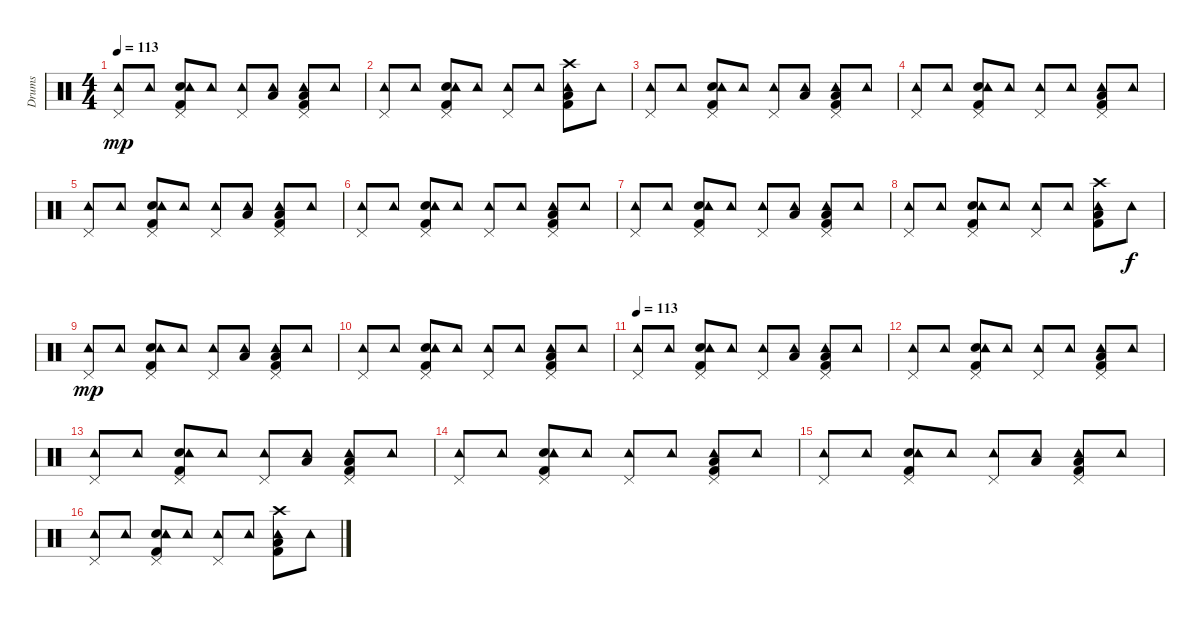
\track ("Drums" "Drums") {instrument percussion}
\staff {score}
\articulation defaults
\ts (4 4)
\tempo 113
\clef neutral
\ks c
("Pedal Hi-Hat (hit)" "Tambourine (hit)").8{dy mp} "Tambourine (hit)".8 ("Pedal Hi-Hat (hit)" "Kick (hit) 2" "Electric Snare (hit)" "Tambourine (hit)").8 "Tambourine (hit)".8 ("Pedal Hi-Hat (hit)" "Tambourine (hit)").8 ("Low Floor Tom (hit)" "Tambourine (hit)").8 ("Pedal Hi-Hat (hit)" "Kick (hit) 2" "Low Floor Tom (hit)" "Tambourine (hit)").8 "Tambourine (hit)".8 |
("Pedal Hi-Hat (hit)" "Tambourine (hit)").8 "Tambourine (hit)".8 ("Pedal Hi-Hat (hit)" "Kick (hit) 2" "Electric Snare (hit)" "Tambourine (hit)").8 "Tambourine (hit)".8 ("Pedal Hi-Hat (hit)" "Tambourine (hit)").8 "Tambourine (hit)".8 ("Crash high (hit)" "Kick (hit) 2" "Low Floor Tom (hit)" "Tambourine (hit)").8 "Tambourine (hit)".8 |
("Pedal Hi-Hat (hit)" "Tambourine (hit)").8 "Tambourine (hit)".8 ("Pedal Hi-Hat (hit)" "Kick (hit) 2" "Electric Snare (hit)" "Tambourine (hit)").8 "Tambourine (hit)".8 ("Pedal Hi-Hat (hit)" "Tambourine (hit)").8 ("Low Floor Tom (hit)" "Tambourine (hit)").8 ("Pedal Hi-Hat (hit)" "Kick (hit) 2" "Low Floor Tom (hit)" "Tambourine (hit)").8 "Tambourine (hit)".8 |
("Pedal Hi-Hat (hit)" "Tambourine (hit)").8 "Tambourine (hit)".8 ("Pedal Hi-Hat (hit)" "Kick (hit) 2" "Electric Snare (hit)" "Tambourine (hit)").8 "Tambourine (hit)".8 ("Pedal Hi-Hat (hit)" "Tambourine (hit)").8 "Tambourine (hit)".8 ("Pedal Hi-Hat (hit)" "Kick (hit) 2" "Low Floor Tom (hit)" "Tambourine (hit)").8 "Tambourine (hit)".8 |
("Pedal Hi-Hat (hit)" "Tambourine (hit)").8 "Tambourine (hit)".8 ("Pedal Hi-Hat (hit)" "Kick (hit) 2" "Electric Snare (hit)" "Tambourine (hit)").8 "Tambourine (hit)".8 ("Pedal Hi-Hat (hit)" "Tambourine (hit)").8 ("Low Floor Tom (hit)" "Tambourine (hit)").8 ("Pedal Hi-Hat (hit)" "Kick (hit) 2" "Low Floor Tom (hit)" "Tambourine (hit)").8 "Tambourine (hit)".8 |
("Pedal Hi-Hat (hit)" "Tambourine (hit)").8 "Tambourine (hit)".8 ("Pedal Hi-Hat (hit)" "Kick (hit) 2" "Electric Snare (hit)" "Tambourine (hit)").8 "Tambourine (hit)".8 ("Pedal Hi-Hat (hit)" "Tambourine (hit)").8 "Tambourine (hit)".8 ("Pedal Hi-Hat (hit)" "Kick (hit) 2" "Low Floor Tom (hit)" "Tambourine (hit)").8 "Tambourine (hit)".8 |
("Pedal Hi-Hat (hit)" "Tambourine (hit)").8 "Tambourine (hit)".8 ("Pedal Hi-Hat (hit)" "Kick (hit) 2" "Electric Snare (hit)" "Tambourine (hit)").8 "Tambourine (hit)".8 ("Pedal Hi-Hat (hit)" "Tambourine (hit)").8 ("Low Floor Tom (hit)" "Tambourine (hit)").8 ("Pedal Hi-Hat (hit)" "Kick (hit) 2" "Low Floor Tom (hit)" "Tambourine (hit)").8 "Tambourine (hit)".8 |
("Pedal Hi-Hat (hit)" "Tambourine (hit)").8 "Tambourine (hit)".8 ("Pedal Hi-Hat (hit)" "Kick (hit) 2" "Electric Snare (hit)" "Tambourine (hit)").8 "Tambourine (hit)".8 ("Pedal Hi-Hat (hit)" "Tambourine (hit)").8 "Tambourine (hit)".8 ("Crash high (hit)" "Kick (hit) 2" "Low Floor Tom (hit)" "Tambourine (hit)").8 "Tambourine (hit)".8{dy f} |
("Pedal Hi-Hat (hit)" "Tambourine (hit)").8{dy mp} "Tambourine (hit)".8 ("Pedal Hi-Hat (hit)" "Kick (hit) 2" "Electric Snare (hit)" "Tambourine (hit)").8 "Tambourine (hit)".8 ("Pedal Hi-Hat (hit)" "Tambourine (hit)").8 ("Low Floor Tom (hit)" "Tambourine (hit)").8 ("Pedal Hi-Hat (hit)" "Kick (hit) 2" "Low Floor Tom (hit)" "Tambourine (hit)").8 "Tambourine (hit)".8 |
("Pedal Hi-Hat (hit)" "Tambourine (hit)").8 "Tambourine (hit)".8 ("Pedal Hi-Hat (hit)" "Kick (hit) 2" "Electric Snare (hit)" "Tambourine (hit)").8 "Tambourine (hit)".8 ("Pedal Hi-Hat (hit)" "Tambourine (hit)").8 "Tambourine (hit)".8 ("Pedal Hi-Hat (hit)" "Kick (hit) 2" "Low Floor Tom (hit)" "Tambourine (hit)").8 "Tambourine (hit)".8 |
\tempo 113
("Pedal Hi-Hat (hit)" "Tambourine (hit)").8 "Tambourine (hit)".8 ("Pedal Hi-Hat (hit)" "Kick (hit) 2" "Electric Snare (hit)" "Tambourine (hit)").8 "Tambourine (hit)".8 ("Pedal Hi-Hat (hit)" "Tambourine (hit)").8 ("Low Floor Tom (hit)" "Tambourine (hit)").8 ("Pedal Hi-Hat (hit)" "Kick (hit) 2" "Low Floor Tom (hit)" "Tambourine (hit)").8 "Tambourine (hit)".8 |
("Pedal Hi-Hat (hit)" "Tambourine (hit)").8 "Tambourine (hit)".8 ("Pedal Hi-Hat (hit)" "Kick (hit) 2" "Electric Snare (hit)" "Tambourine (hit)").8 "Tambourine (hit)".8 ("Pedal Hi-Hat (hit)" "Tambourine (hit)").8 "Tambourine (hit)".8 ("Pedal Hi-Hat (hit)" "Kick (hit) 2" "Low Floor Tom (hit)" "Tambourine (hit)").8 "Tambourine (hit)".8 |
("Pedal Hi-Hat (hit)" "Tambourine (hit)").8 "Tambourine (hit)".8 ("Pedal Hi-Hat (hit)" "Kick (hit) 2" "Electric Snare (hit)" "Tambourine (hit)").8 "Tambourine (hit)".8 ("Pedal Hi-Hat (hit)" "Tambourine (hit)").8 ("Low Floor Tom (hit)" "Tambourine (hit)").8 ("Pedal Hi-Hat (hit)" "Kick (hit) 2" "Low Floor Tom (hit)" "Tambourine (hit)").8 "Tambourine (hit)".8 |
("Pedal Hi-Hat (hit)" "Tambourine (hit)").8 "Tambourine (hit)".8 ("Pedal Hi-Hat (hit)" "Kick (hit) 2" "Electric Snare (hit)" "Tambourine (hit)").8 "Tambourine (hit)".8 ("Pedal Hi-Hat (hit)" "Tambourine (hit)").8 "Tambourine (hit)".8 ("Pedal Hi-Hat (hit)" "Kick (hit) 2" "Low Floor Tom (hit)" "Tambourine (hit)").8 "Tambourine (hit)".8 |
("Pedal Hi-Hat (hit)" "Tambourine (hit)").8 "Tambourine (hit)".8 ("Pedal Hi-Hat (hit)" "Kick (hit) 2" "Electric Snare (hit)" "Tambourine (hit)").8 "Tambourine (hit)".8 ("Pedal Hi-Hat (hit)" "Tambourine (hit)").8 ("Low Floor Tom (hit)" "Tambourine (hit)").8 ("Pedal Hi-Hat (hit)" "Kick (hit) 2" "Low Floor Tom (hit)" "Tambourine (hit)").8 "Tambourine (hit)".8 |
("Pedal Hi-Hat (hit)" "Tambourine (hit)").8 "Tambourine (hit)".8 ("Pedal Hi-Hat (hit)" "Kick (hit) 2" "Electric Snare (hit)" "Tambourine (hit)").8 "Tambourine (hit)".8 ("Pedal Hi-Hat (hit)" "Tambourine (hit)").8 "Tambourine (hit)".8 ("Crash high (hit)" "Kick (hit) 2" "Low Floor Tom (hit)" "Tambourine (hit)").8 "Tambourine (hit)".8
